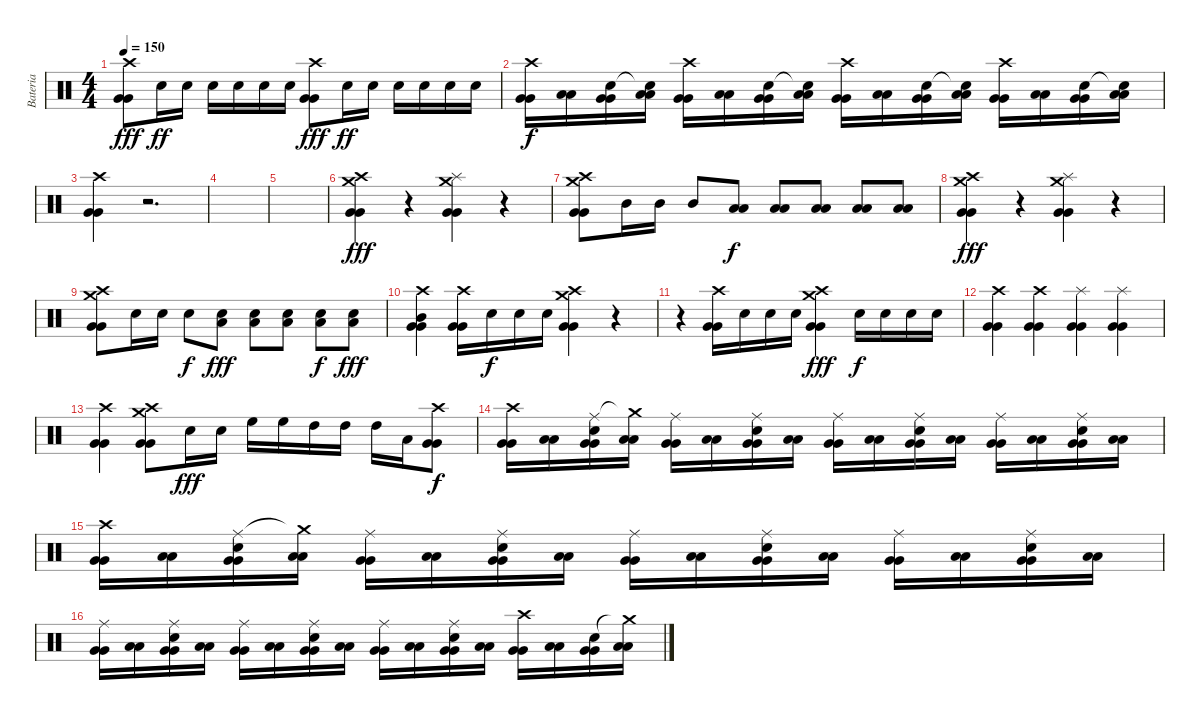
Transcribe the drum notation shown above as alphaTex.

\track ("Bateria" "Bateria") {instrument percussion}
\staff {score}
\articulation defaults
\ts (4 4)
\tempo 150
\clef neutral
\ks c
("Crash high (hit)" "Very Low Tom (hit)" "Very Low Tom (hit)").8{dy fff} "Electric Snare (hit)".16{dy ff} "Electric Snare (hit)".16 "Electric Snare (hit)".16 "Electric Snare (hit)".16 "Electric Snare (hit)".16 "Electric Snare (hit)".16 ("Crash high (hit)" "Very Low Tom (hit)" "Very Low Tom (hit)").8{dy fff} "Electric Snare (hit)".16{dy ff} "Electric Snare (hit)".16 "Electric Snare (hit)".16 "Electric Snare (hit)".16 "Electric Snare (hit)".16 "Electric Snare (hit)".16 |
("Crash high (hit)" "Very Low Tom (hit)" "Very Low Tom (hit)").16{dy f} ("Low Floor Tom (hit)" "Low Floor Tom (hit)").16 ("Electric Snare (hit)" "Very Low Tom (hit)" "Very Low Tom (hit)").16 ("Snare (hit)"{t} "Low Floor Tom (hit)" "Low Floor Tom (hit)").16 ("Crash high (hit)" "Very Low Tom (hit)" "Very Low Tom (hit)").16 ("Low Floor Tom (hit)" "Low Floor Tom (hit)").16 ("Electric Snare (hit)" "Very Low Tom (hit)" "Very Low Tom (hit)").16 ("Snare (hit)"{t} "Low Floor Tom (hit)" "Low Floor Tom (hit)").16 ("Crash high (hit)" "Very Low Tom (hit)" "Very Low Tom (hit)").16 ("Low Floor Tom (hit)" "Low Floor Tom (hit)").16 ("Electric Snare (hit)" "Very Low Tom (hit)" "Very Low Tom (hit)").16 ("Snare (hit)"{t} "Low Floor Tom (hit)" "Low Floor Tom (hit)").16 ("Crash high (hit)" "Very Low Tom (hit)" "Very Low Tom (hit)").16 ("Low Floor Tom (hit)" "Low Floor Tom (hit)").16 ("Electric Snare (hit)" "Very Low Tom (hit)" "Very Low Tom (hit)").16 ("Snare (hit)"{t} "Low Floor Tom (hit)" "Low Floor Tom (hit)").16 |
("Crash high (hit)" "Very Low Tom (hit)" "Very Low Tom (hit)").4 r.2{d} |
|
|
("Crash medium (hit)" "Crash high (hit)" "Very Low Tom (hit)" "Very Low Tom (hit)").4{dy fff} r.4 ("Crash medium (hit)" "Splash (hit)" "Very Low Tom (hit)" "Very Low Tom (hit)").4 r.4 |
("Crash medium (hit)" "Crash high (hit)" "Very Low Tom (hit)" "Very Low Tom (hit)").8 "Mid Tom (hit)".16 "Mid Tom (hit)".16 "Mid Tom (hit)".8 ("Low Tom (hit)" "Low Tom (hit)").8{dy f} ("Low Tom (hit)" "Low Tom (hit)").8 ("Low Tom (hit)" "Low Tom (hit)").8 ("Low Tom (hit)" "Low Tom (hit)").8 ("Low Tom (hit)" "Low Tom (hit)").8 |
("Crash medium (hit)" "Crash high (hit)" "Very Low Tom (hit)" "Very Low Tom (hit)").4{dy fff} r.4 ("Crash medium (hit)" "Splash (hit)" "Very Low Tom (hit)" "Very Low Tom (hit)").4 r.4 |
("Crash medium (hit)" "Crash high (hit)" "Very Low Tom (hit)" "Very Low Tom (hit)").8 "Electric Snare (hit)".16 "Electric Snare (hit)".16 "Electric Snare (hit)".8{dy f} ("Electric Snare (hit)" "Low Tom (hit)").8{dy fff} ("Electric Snare (hit)" "Low Tom (hit)").8 ("Electric Snare (hit)" "Low Tom (hit)").8 ("Electric Snare (hit)" "Low Tom (hit)").8{dy f} ("Electric Snare (hit)" "Low Tom (hit)").8{dy fff} |
("Crash high (hit)" "Mid Tom (hit)" "Very Low Tom (hit)" "Very Low Tom (hit)").4 ("Crash high (hit)" "Very Low Tom (hit)" "Very Low Tom (hit)").16 "Electric Snare (hit)".16{dy f} "Electric Snare (hit)".16 "Electric Snare (hit)".16 ("Crash high (hit)" "Crash medium (hit)" "Very Low Tom (hit)" "Very Low Tom (hit)").4 r.4 |
r.4 ("Crash high (hit)" "Very Low Tom (hit)" "Very Low Tom (hit)").16 "Electric Snare (hit)".16 "Electric Snare (hit)".16 "Electric Snare (hit)".16 ("Crash high (hit)" "Crash medium (hit)" "Very Low Tom (hit)" "Very Low Tom (hit)").4{dy fff} "Electric Snare (hit)".16{dy f} "Electric Snare (hit)".16 "Electric Snare (hit)".16 "Electric Snare (hit)".16 |
("Crash high (hit)" "Very Low Tom (hit)" "Very Low Tom (hit)").4 ("Crash high (hit)" "Very Low Tom (hit)" "Very Low Tom (hit)").4 ("Splash (hit)" "Very Low Tom (hit)" "Very Low Tom (hit)").4 ("Splash (hit)" "Very Low Tom (hit)" "Very Low Tom (hit)").4 |
("Crash high (hit)" "Very Low Tom (hit)" "Very Low Tom (hit)").4 ("Crash medium (hit)" "Crash high (hit)" "Very Low Tom (hit)" "Very Low Tom (hit)").8 "Electric Snare (hit)".16{dy fff} "Electric Snare (hit)".16 "High Floor Tom (hit)".16 "High Floor Tom (hit)".16 "High Tom (hit)".16 "High Tom (hit)".16 "High Tom (hit)".16 "Low Tom (hit)".16 ("Crash high (hit)" "Very Low Tom (hit)" "Very Low Tom (hit)").8{dy f} |
("Crash high (hit)" "Very Low Tom (hit)" "Very Low Tom (hit)").16 ("Low Floor Tom (hit)" "Low Floor Tom (hit)").16 ("Ride (middle)" "Electric Snare (hit)" "Very Low Tom (hit)" "Very Low Tom (hit)").16 ("Crash medium (hit)"{t} "Low Floor Tom (hit)" "Low Floor Tom (hit)").16 ("Ride (middle)" "Very Low Tom (hit)" "Very Low Tom (hit)").16 ("Low Floor Tom (hit)" "Low Floor Tom (hit)").16 ("Ride (middle)" "Electric Snare (hit)" "Very Low Tom (hit)" "Very Low Tom (hit)").16 ("Low Floor Tom (hit)" "Low Floor Tom (hit)").16 ("Ride (middle)" "Very Low Tom (hit)" "Very Low Tom (hit)").16 ("Low Floor Tom (hit)" "Low Floor Tom (hit)").16 ("Ride (middle)" "Electric Snare (hit)" "Very Low Tom (hit)" "Very Low Tom (hit)").16 ("Low Floor Tom (hit)" "Low Floor Tom (hit)").16 ("Ride (middle)" "Very Low Tom (hit)" "Very Low Tom (hit)").16 ("Low Floor Tom (hit)" "Low Floor Tom (hit)").16 ("Ride (middle)" "Electric Snare (hit)" "Very Low Tom (hit)" "Very Low Tom (hit)").16 ("Low Floor Tom (hit)" "Low Floor Tom (hit)").16 |
("Crash high (hit)" "Very Low Tom (hit)" "Very Low Tom (hit)").16 ("Low Floor Tom (hit)" "Low Floor Tom (hit)").16 ("Ride (middle)" "Electric Snare (hit)" "Very Low Tom (hit)" "Very Low Tom (hit)").16 ("Crash medium (hit)"{t} "Low Floor Tom (hit)" "Low Floor Tom (hit)").16 ("Ride (middle)" "Very Low Tom (hit)" "Very Low Tom (hit)").16 ("Low Floor Tom (hit)" "Low Floor Tom (hit)").16 ("Ride (middle)" "Electric Snare (hit)" "Very Low Tom (hit)" "Very Low Tom (hit)").16 ("Low Floor Tom (hit)" "Low Floor Tom (hit)").16 ("Ride (middle)" "Very Low Tom (hit)" "Very Low Tom (hit)").16 ("Low Floor Tom (hit)" "Low Floor Tom (hit)").16 ("Ride (middle)" "Electric Snare (hit)" "Very Low Tom (hit)" "Very Low Tom (hit)").16 ("Low Floor Tom (hit)" "Low Floor Tom (hit)").16 ("Ride (middle)" "Very Low Tom (hit)" "Very Low Tom (hit)").16 ("Low Floor Tom (hit)" "Low Floor Tom (hit)").16 ("Ride (middle)" "Electric Snare (hit)" "Very Low Tom (hit)" "Very Low Tom (hit)").16 ("Low Floor Tom (hit)" "Low Floor Tom (hit)").16 |
("Ride (middle)" "Very Low Tom (hit)" "Very Low Tom (hit)").16 ("Low Floor Tom (hit)" "Low Floor Tom (hit)").16 ("Ride (middle)" "Electric Snare (hit)" "Very Low Tom (hit)" "Very Low Tom (hit)").16 ("Low Floor Tom (hit)" "Low Floor Tom (hit)").16 ("Ride (middle)" "Very Low Tom (hit)" "Very Low Tom (hit)").16 ("Low Floor Tom (hit)" "Low Floor Tom (hit)").16 ("Ride (middle)" "Electric Snare (hit)" "Very Low Tom (hit)" "Very Low Tom (hit)").16 ("Low Floor Tom (hit)" "Low Floor Tom (hit)").16 ("Ride (middle)" "Very Low Tom (hit)" "Very Low Tom (hit)").16 ("Low Floor Tom (hit)" "Low Floor Tom (hit)").16 ("Ride (middle)" "Electric Snare (hit)" "Very Low Tom (hit)" "Very Low Tom (hit)").16 ("Low Floor Tom (hit)" "Low Floor Tom (hit)").16 ("Crash high (hit)" "Very Low Tom (hit)" "Very Low Tom (hit)").16 ("Low Floor Tom (hit)" "Low Floor Tom (hit)").16 ("Electric Snare (hit)" "Very Low Tom (hit)" "Very Low Tom (hit)").16 ("Crash medium (hit)"{t} "Low Floor Tom (hit)" "Low Floor Tom (hit)").16
